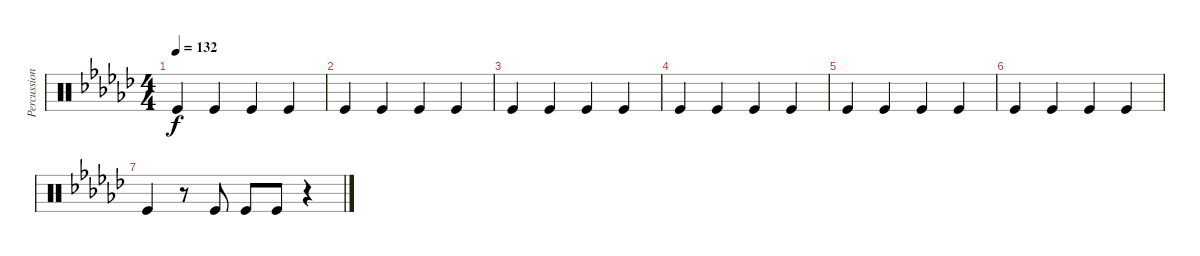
\track ("Percussion foot" "Percussion") {instrument percussion}
\staff {score}
\articulation defaults
\ts (4 4)
\tempo 132
\clef neutral
\ks gb "Kick (hit)".4{dy f} "Kick (hit)".4 "Kick (hit)".4 "Kick (hit)".4
|
"Kick (hit)".4 "Kick (hit)".4 "Kick (hit)".4 "Kick (hit)".4 |
"Kick (hit)".4 "Kick (hit)".4 "Kick (hit)".4 "Kick (hit)".4 |
"Kick (hit)".4 "Kick (hit)".4 "Kick (hit)".4 "Kick (hit)".4 |
"Kick (hit)".4 "Kick (hit)".4 "Kick (hit)".4 "Kick (hit)".4 |
"Kick (hit)".4 "Kick (hit)".4 "Kick (hit)".4 "Kick (hit)".4 |
"Kick (hit)".4 r.8 "Kick (hit)".8 "Kick (hit)".8 "Kick (hit)".8 r.4
